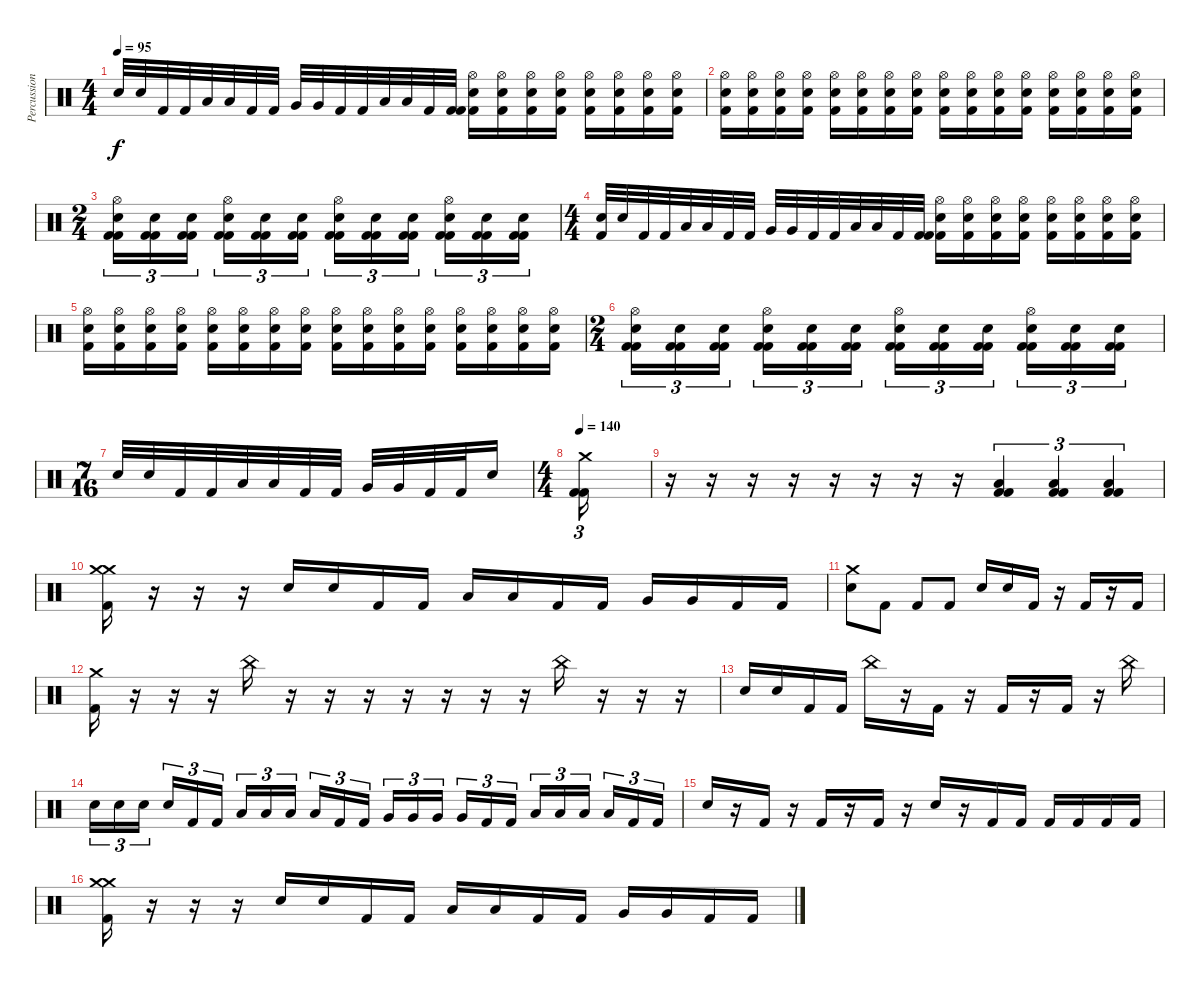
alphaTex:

\track ("Percussion" "Percussion") {instrument percussion}
\staff {score}
\articulation defaults
\ts (4 4)
\tempo 95
\clef neutral
\ks c "Electric Snare (hit)".32{dy f} "Electric Snare (hit)".32 "Kick (hit) 2".32 "Kick (hit) 2".32 "Low Tom (hit)".32 "Low Tom (hit)".32 "Kick (hit) 2".32 "Kick (hit) 2".32 "Very Low Tom (hit)".32 "Very Low Tom (hit)".32 "Kick (hit) 2".32 "Kick (hit) 2".32 "Low Floor Tom (hit)".32 "Low Floor Tom (hit)".32 "Kick (hit) 2".32
("Kick (hit) 2" "Kick (hit) 2").32 ("Hi-Hat (open)" "Kick (hit) 2" "Electric Snare (hit)").16 ("Hi-Hat (open)" "Kick (hit) 2" "Electric Snare (hit)").16 ("Hi-Hat (open)" "Kick (hit) 2" "Electric Snare (hit)").16 ("Hi-Hat (open)" "Kick (hit) 2" "Electric Snare (hit)").16 ("Hi-Hat (open)" "Kick (hit) 2" "Electric Snare (hit)").16 ("Hi-Hat (open)" "Kick (hit) 2" "Electric Snare (hit)").16 ("Hi-Hat (open)" "Kick (hit) 2" "Electric Snare (hit)").16 ("Hi-Hat (open)" "Kick (hit) 2" "Electric Snare (hit)").16 |
("Hi-Hat (open)" "Kick (hit) 2" "Electric Snare (hit)").16 ("Hi-Hat (open)" "Kick (hit) 2" "Electric Snare (hit)").16 ("Hi-Hat (open)" "Kick (hit) 2" "Electric Snare (hit)").16 ("Hi-Hat (open)" "Kick (hit) 2" "Electric Snare (hit)").16 ("Hi-Hat (open)" "Kick (hit) 2" "Electric Snare (hit)").16 ("Hi-Hat (open)" "Kick (hit) 2" "Electric Snare (hit)").16 ("Hi-Hat (open)" "Kick (hit) 2" "Electric Snare (hit)").16 ("Hi-Hat (open)" "Kick (hit) 2" "Electric Snare (hit)").16 ("Hi-Hat (open)" "Kick (hit) 2" "Electric Snare (hit)").16 ("Hi-Hat (open)" "Kick (hit) 2" "Electric Snare (hit)").16 ("Hi-Hat (open)" "Kick (hit) 2" "Electric Snare (hit)").16 ("Hi-Hat (open)" "Kick (hit) 2" "Electric Snare (hit)").16 ("Hi-Hat (open)" "Kick (hit) 2" "Electric Snare (hit)").16 ("Hi-Hat (open)" "Kick (hit) 2" "Electric Snare (hit)").16 ("Hi-Hat (open)" "Kick (hit) 2" "Electric Snare (hit)").16 ("Hi-Hat (open)" "Kick (hit) 2" "Electric Snare (hit)").16 |
\ts (2 4)
("Hi-Hat (open)" "Electric Snare (hit)" "Kick (hit) 2" "Kick (hit) 2").16{tu (3 2)} ("Electric Snare (hit)" "Kick (hit) 2" "Kick (hit) 2").16{tu (3 2)} ("Electric Snare (hit)" "Kick (hit) 2" "Kick (hit) 2").16{tu (3 2) beam splitsecondary} ("Hi-Hat (open)" "Electric Snare (hit)" "Kick (hit) 2" "Kick (hit) 2").16{tu (3 2)} ("Electric Snare (hit)" "Kick (hit) 2" "Kick (hit) 2").16{tu (3 2)} ("Electric Snare (hit)" "Kick (hit) 2" "Kick (hit) 2").16{tu (3 2)} ("Hi-Hat (open)" "Electric Snare (hit)" "Kick (hit) 2" "Kick (hit) 2").16{tu (3 2)} ("Electric Snare (hit)" "Kick (hit) 2" "Kick (hit) 2").16{tu (3 2)} ("Electric Snare (hit)" "Kick (hit) 2" "Kick (hit) 2").16{tu (3 2) beam splitsecondary} ("Hi-Hat (open)" "Electric Snare (hit)" "Kick (hit) 2" "Kick (hit) 2").16{tu (3 2)} ("Electric Snare (hit)" "Kick (hit) 2" "Kick (hit) 2").16{tu (3 2)} ("Electric Snare (hit)" "Kick (hit) 2" "Kick (hit) 2").16{tu (3 2)} |
\ts (4 4)
("Kick (hit) 2" "Electric Snare (hit)").32 "Electric Snare (hit)".32 "Kick (hit) 2".32 "Kick (hit) 2".32 "Low Tom (hit)".32 "Low Tom (hit)".32 "Kick (hit) 2".32 "Kick (hit) 2".32 "Very Low Tom (hit)".32 "Very Low Tom (hit)".32 "Kick (hit) 2".32 "Kick (hit) 2".32 "Low Floor Tom (hit)".32 "Low Floor Tom (hit)".32 "Kick (hit) 2".32 ("Kick (hit) 2" "Kick (hit) 2").32 ("Hi-Hat (open)" "Kick (hit) 2" "Electric Snare (hit)").16 ("Hi-Hat (open)" "Kick (hit) 2" "Electric Snare (hit)").16 ("Hi-Hat (open)" "Kick (hit) 2" "Electric Snare (hit)").16 ("Hi-Hat (open)" "Kick (hit) 2" "Electric Snare (hit)").16 ("Hi-Hat (open)" "Kick (hit) 2" "Electric Snare (hit)").16 ("Hi-Hat (open)" "Kick (hit) 2" "Electric Snare (hit)").16 ("Hi-Hat (open)" "Kick (hit) 2" "Electric Snare (hit)").16 ("Hi-Hat (open)" "Kick (hit) 2" "Electric Snare (hit)").16 |
("Hi-Hat (open)" "Kick (hit) 2" "Electric Snare (hit)").16 ("Hi-Hat (open)" "Kick (hit) 2" "Electric Snare (hit)").16 ("Hi-Hat (open)" "Kick (hit) 2" "Electric Snare (hit)").16 ("Hi-Hat (open)" "Kick (hit) 2" "Electric Snare (hit)").16 ("Hi-Hat (open)" "Kick (hit) 2" "Electric Snare (hit)").16 ("Hi-Hat (open)" "Kick (hit) 2" "Electric Snare (hit)").16 ("Hi-Hat (open)" "Kick (hit) 2" "Electric Snare (hit)").16 ("Hi-Hat (open)" "Kick (hit) 2" "Electric Snare (hit)").16 ("Hi-Hat (open)" "Kick (hit) 2" "Electric Snare (hit)").16 ("Hi-Hat (open)" "Kick (hit) 2" "Electric Snare (hit)").16 ("Hi-Hat (open)" "Kick (hit) 2" "Electric Snare (hit)").16 ("Hi-Hat (open)" "Kick (hit) 2" "Electric Snare (hit)").16 ("Hi-Hat (open)" "Kick (hit) 2" "Electric Snare (hit)").16 ("Hi-Hat (open)" "Kick (hit) 2" "Electric Snare (hit)").16 ("Hi-Hat (open)" "Kick (hit) 2" "Electric Snare (hit)").16 ("Hi-Hat (open)" "Kick (hit) 2" "Electric Snare (hit)").16 |
\ts (2 4)
("Hi-Hat (open)" "Electric Snare (hit)" "Kick (hit) 2" "Kick (hit) 2").16{tu (3 2)} ("Electric Snare (hit)" "Kick (hit) 2" "Kick (hit) 2").16{tu (3 2)} ("Electric Snare (hit)" "Kick (hit) 2" "Kick (hit) 2").16{tu (3 2) beam splitsecondary} ("Hi-Hat (open)" "Electric Snare (hit)" "Kick (hit) 2" "Kick (hit) 2").16{tu (3 2)} ("Electric Snare (hit)" "Kick (hit) 2" "Kick (hit) 2").16{tu (3 2)} ("Electric Snare (hit)" "Kick (hit) 2" "Kick (hit) 2").16{tu (3 2)} ("Hi-Hat (open)" "Electric Snare (hit)" "Kick (hit) 2" "Kick (hit) 2").16{tu (3 2)} ("Electric Snare (hit)" "Kick (hit) 2" "Kick (hit) 2").16{tu (3 2)} ("Electric Snare (hit)" "Kick (hit) 2" "Kick (hit) 2").16{tu (3 2) beam splitsecondary} ("Hi-Hat (open)" "Electric Snare (hit)" "Kick (hit) 2" "Kick (hit) 2").16{tu (3 2)} ("Electric Snare (hit)" "Kick (hit) 2" "Kick (hit) 2").16{tu (3 2)} ("Electric Snare (hit)" "Kick (hit) 2" "Kick (hit) 2").16{tu (3 2)} |
\ts (7 16)
"Electric Snare (hit)".32 "Electric Snare (hit)".32 "Kick (hit) 2".32 "Kick (hit) 2".32 "Low Tom (hit)".32 "Low Tom (hit)".32 "Kick (hit) 2".32 "Kick (hit) 2".32 "Very Low Tom (hit)".32 "Very Low Tom (hit)".32 "Kick (hit) 2".32 "Kick (hit) 2".32 "Electric Snare (hit)".16 |
\ts (4 4)
\tempo 140
("Crash medium (hit)" "Kick (hit) 2" "Kick (hit) 2").16{tu (3 2)} |
r.16 r.16 r.16 r.16 r.16 r.16 r.16 r.16 ("Low Tom (hit)" "Kick (hit) 2" "Kick (hit) 2").4{tu (3 2)} ("Low Tom (hit)" "Kick (hit) 2" "Kick (hit) 2").4{tu (3 2)} ("Low Tom (hit)" "Kick (hit) 2" "Kick (hit) 2").4{tu (3 2)} |
("Kick (hit) 2" "Crash medium (hit)" "Crash medium (hit)").16 r.16 r.16 r.16 "Electric Snare (hit)".16 "Electric Snare (hit)".16 "Kick (hit) 2".16 "Kick (hit) 2".16 "Low Tom (hit)".16 "Low Tom (hit)".16 "Kick (hit) 2".16 "Kick (hit) 2".16 "Very Low Tom (hit)".16 "Very Low Tom (hit)".16 "Kick (hit) 2".16 "Kick (hit) 2".16 |
("Crash medium (hit)" "Electric Snare (hit)").8 "Kick (hit) 2".8 "Kick (hit) 2".8 "Kick (hit) 2".8 "Electric Snare (hit)".16 "Electric Snare (hit)".16 "Kick (hit) 2".16 r.16 "Kick (hit) 2".16 r.16 "Kick (hit) 2".16 |
("Crash medium (hit)" "Kick (hit) 2").16 r.16 r.16 r.16 "China (hit)".16 r.16 r.16 r.16 r.16 r.16 r.16 r.16 "China (hit)".16 r.16 r.16 r.16 |
"Electric Snare (hit)".16 "Electric Snare (hit)".16 "Kick (hit) 2".16 "Kick (hit) 2".16 "China (hit)".16 r.16 "Kick (hit) 2".16 r.16 "Kick (hit) 2".16 r.16 "Kick (hit) 2".16 r.16 "China (hit)".16 |
"Electric Snare (hit)".16{tu (3 2)} "Electric Snare (hit)".16{tu (3 2)} "Electric Snare (hit)".16{tu (3 2) beam splitsecondary} "Electric Snare (hit)".16{tu (3 2)} "Kick (hit) 2".16{tu (3 2)} "Kick (hit) 2".16{tu (3 2)} "Low Tom (hit)".16{tu (3 2)} "Low Tom (hit)".16{tu (3 2)} "Low Tom (hit)".16{tu (3 2) beam splitsecondary} "Low Tom (hit)".16{tu (3 2)} "Kick (hit) 2".16{tu (3 2)} "Kick (hit) 2".16{tu (3 2)} "Very Low Tom (hit)".16{tu (3 2)} "Very Low Tom (hit)".16{tu (3 2)} "Very Low Tom (hit)".16{tu (3 2) beam splitsecondary} "Very Low Tom (hit)".16{tu (3 2)} "Kick (hit) 2".16{tu (3 2)} "Kick (hit) 2".16{tu (3 2)} "Low Floor Tom (hit)".16{tu (3 2)} "Low Floor Tom (hit)".16{tu (3 2)} "Low Floor Tom (hit)".16{tu (3 2) beam splitsecondary} "Low Floor Tom (hit)".16{tu (3 2)} "Kick (hit) 2".16{tu (3 2)} "Kick (hit) 2".16{tu (3 2)} |
"Electric Snare (hit)".16 r.16 "Kick (hit) 2".16 r.16 "Kick (hit) 2".16 r.16 "Kick (hit) 2".16 r.16 "Electric Snare (hit)".16 r.16 "Kick (hit) 2".16 "Kick (hit) 2".16 "Kick (hit) 2".16 "Kick (hit) 2".16 "Kick (hit) 2".16 "Kick (hit) 2".16 |
("Kick (hit) 2" "Crash medium (hit)" "Crash medium (hit)").16 r.16 r.16 r.16 "Electric Snare (hit)".16 "Electric Snare (hit)".16 "Kick (hit) 2".16 "Kick (hit) 2".16 "Low Tom (hit)".16 "Low Tom (hit)".16 "Kick (hit) 2".16 "Kick (hit) 2".16 "Very Low Tom (hit)".16 "Very Low Tom (hit)".16 "Kick (hit) 2".16 "Kick (hit) 2".16
